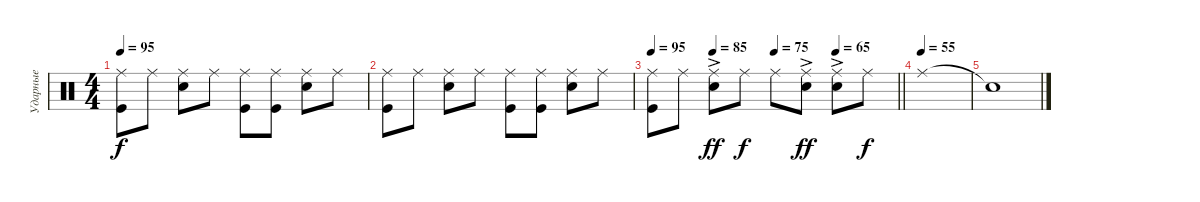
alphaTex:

\track ("Ударные" "Ударные") {instrument percussion}
\staff {score}
\articulation defaults
\ts (4 4)
\tempo 95
\clef neutral
\ks c
("Ride (middle)" "Kick (hit)").8{dy f} "Ride (middle)".8 ("Ride (middle)" "Snare (hit) 2").8 "Ride (middle)".8 ("Ride (middle)" "Kick (hit)").8 ("Ride (middle)" "Kick (hit)").8 ("Ride (middle)" "Snare (hit) 2").8 "Ride (middle)".8 |
("Ride (middle)" "Kick (hit)").8 "Ride (middle)".8 ("Ride (middle)" "Snare (hit) 2").8 "Ride (middle)".8 ("Ride (middle)" "Kick (hit)").8 ("Ride (middle)" "Kick (hit)").8 ("Ride (middle)" "Snare (hit) 2").8 "Ride (middle)".8 |
\tempo 90
\tempo (85 0.25)
\tempo (75 0.5)
\tempo (65 0.75)
\tempo 95
\barLineRight lightlight
("Ride (middle)" "Kick (hit)").8 "Ride (middle)".8 ("Ride (middle)" "Snare (hit) 2"{ac}).8{dy ff} "Ride (middle)".8{dy f} "Ride (middle)".8 ("Ride (middle)" "Snare (hit) 2"{ac}).8{dy ff} ("Ride (middle)" "Snare (hit) 2"{ac}).8 "Ride (middle)".8{dy f} |
\tempo (55)
"Ride (middle)".1 |
"Snare (hit)"{t}.1
